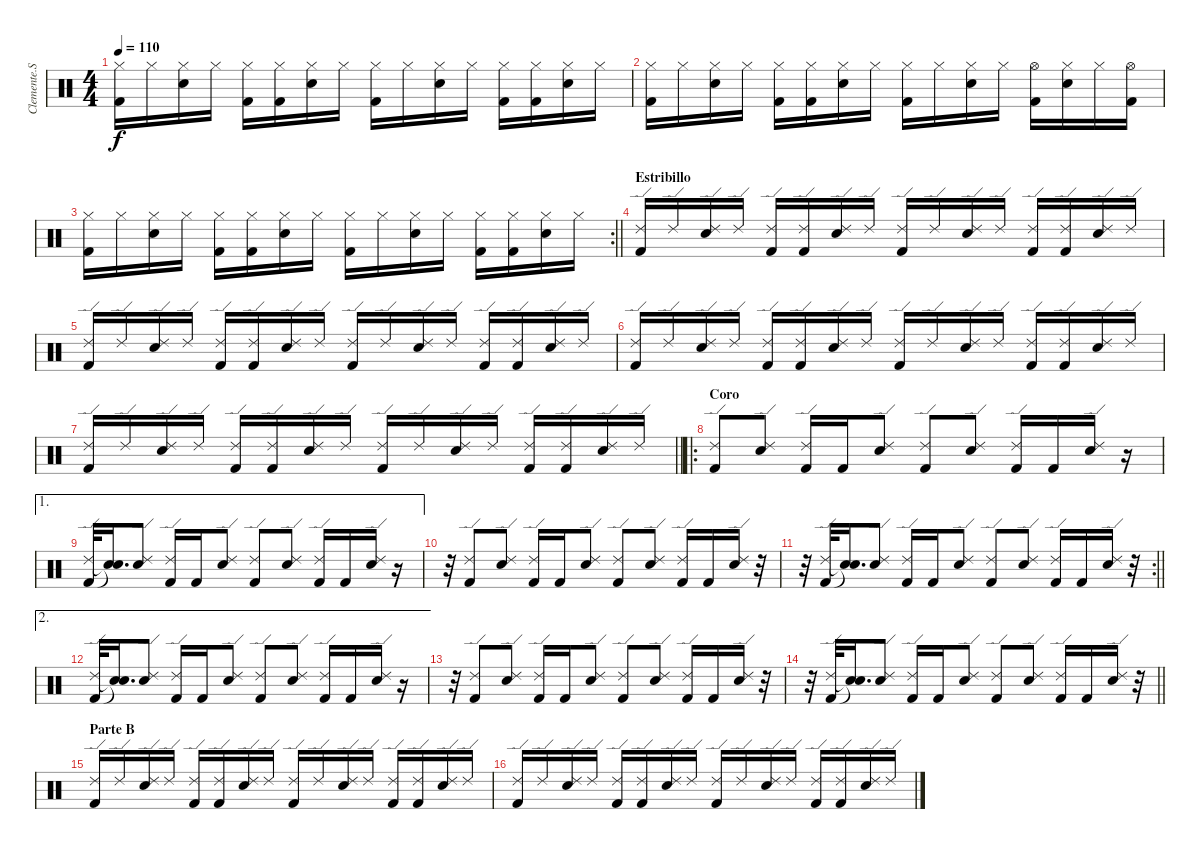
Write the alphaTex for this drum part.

\track ("Clemente.S" "Clemente.S") {instrument percussion}
\staff {score}
\articulation defaults
\ts (4 4)
\tempo 110
\clef neutral
\ks c
("Hi-Hat (closed)" "Kick (hit) 2").16{dy f} "Hi-Hat (closed)".16 ("Hi-Hat (closed)" "Snare (hit) 2").16 "Hi-Hat (closed)".16 ("Hi-Hat (closed)" "Kick (hit) 2").16 ("Hi-Hat (closed)" "Kick (hit) 2").16 ("Hi-Hat (closed)" "Snare (hit) 2").16 "Hi-Hat (closed)".16 ("Hi-Hat (closed)" "Kick (hit) 2").16 "Hi-Hat (closed)".16 ("Hi-Hat (closed)" "Snare (hit) 2").16 "Hi-Hat (closed)".16 ("Hi-Hat (closed)" "Kick (hit) 2").16 ("Hi-Hat (closed)" "Kick (hit) 2").16 ("Hi-Hat (closed)" "Snare (hit) 2").16 "Hi-Hat (closed)".16 |
("Hi-Hat (closed)" "Kick (hit) 2").16 "Hi-Hat (closed)".16 ("Hi-Hat (closed)" "Snare (hit) 2").16 "Hi-Hat (closed)".16 ("Hi-Hat (closed)" "Kick (hit) 2").16 ("Hi-Hat (closed)" "Kick (hit) 2").16 ("Hi-Hat (closed)" "Snare (hit) 2").16 "Hi-Hat (closed)".16 ("Hi-Hat (closed)" "Kick (hit) 2").16 "Hi-Hat (closed)".16 ("Hi-Hat (closed)" "Snare (hit) 2").16 "Hi-Hat (closed)".16 ("Hi-Hat (open)" "Kick (hit) 2").16 ("Hi-Hat (closed)" "Snare (hit) 2").16 "Hi-Hat (closed)".16 ("Hi-Hat (open)" "Kick (hit) 2").16 |
\rc 2
\barLineRight lightlight
("Hi-Hat (closed)" "Kick (hit) 2").16 "Hi-Hat (closed)".16 ("Hi-Hat (closed)" "Snare (hit) 2").16 "Hi-Hat (closed)".16 ("Hi-Hat (closed)" "Kick (hit) 2").16 ("Hi-Hat (closed)" "Kick (hit) 2").16 ("Hi-Hat (closed)" "Snare (hit) 2").16 "Hi-Hat (closed)".16 ("Hi-Hat (closed)" "Kick (hit) 2").16 "Hi-Hat (closed)".16 ("Hi-Hat (closed)" "Snare (hit) 2").16 "Hi-Hat (closed)".16 ("Hi-Hat (closed)" "Kick (hit) 2").16 ("Hi-Hat (closed)" "Kick (hit) 2").16 ("Hi-Hat (closed)" "Snare (hit) 2").16 "Hi-Hat (closed)".16 |
\section ("" "Estribillo")
("Ride (edge) 2" "Kick (hit) 2").16 "Ride (edge) 2".16 ("Ride (edge) 2" "Electric Snare (hit)").16 "Ride (edge) 2".16 ("Ride (edge) 2" "Kick (hit) 2").16 ("Ride (edge) 2" "Kick (hit) 2").16 ("Ride (edge) 2" "Electric Snare (hit)").16 "Ride (edge) 2".16 ("Ride (edge) 2" "Kick (hit) 2").16 "Ride (edge) 2".16 ("Ride (edge) 2" "Electric Snare (hit)").16 "Ride (edge) 2".16 ("Ride (edge) 2" "Kick (hit) 2").16 ("Ride (edge) 2" "Kick (hit) 2").16 ("Ride (edge) 2" "Electric Snare (hit)").16 "Ride (edge) 2".16 |
("Ride (edge) 2" "Kick (hit) 2").16 "Ride (edge) 2".16 ("Ride (edge) 2" "Electric Snare (hit)").16 "Ride (edge) 2".16 ("Ride (edge) 2" "Kick (hit) 2").16 ("Ride (edge) 2" "Kick (hit) 2").16 ("Ride (edge) 2" "Electric Snare (hit)").16 "Ride (edge) 2".16 ("Ride (edge) 2" "Kick (hit) 2").16 "Ride (edge) 2".16 ("Ride (edge) 2" "Electric Snare (hit)").16 "Ride (edge) 2".16 ("Ride (edge) 2" "Kick (hit) 2").16 ("Ride (edge) 2" "Kick (hit) 2").16 ("Ride (edge) 2" "Electric Snare (hit)").16 "Ride (edge) 2".16 |
("Ride (edge) 2" "Kick (hit) 2").16 "Ride (edge) 2".16 ("Ride (edge) 2" "Electric Snare (hit)").16 "Ride (edge) 2".16 ("Ride (edge) 2" "Kick (hit) 2").16 ("Ride (edge) 2" "Kick (hit) 2").16 ("Ride (edge) 2" "Electric Snare (hit)").16 "Ride (edge) 2".16 ("Ride (edge) 2" "Kick (hit) 2").16 "Ride (edge) 2".16 ("Ride (edge) 2" "Electric Snare (hit)").16 "Ride (edge) 2".16 ("Ride (edge) 2" "Kick (hit) 2").16 ("Ride (edge) 2" "Kick (hit) 2").16 ("Ride (edge) 2" "Electric Snare (hit)").16 "Ride (edge) 2".16 |
\barLineRight lightlight
("Ride (edge) 2" "Kick (hit) 2").16 "Ride (edge) 2".16 ("Ride (edge) 2" "Electric Snare (hit)").16 "Ride (edge) 2".16 ("Ride (edge) 2" "Kick (hit) 2").16 ("Ride (edge) 2" "Kick (hit) 2").16 ("Ride (edge) 2" "Electric Snare (hit)").16 "Ride (edge) 2".16 ("Ride (edge) 2" "Kick (hit) 2").16 "Ride (edge) 2".16 ("Ride (edge) 2" "Electric Snare (hit)").16 "Ride (edge) 2".16 ("Ride (edge) 2" "Kick (hit) 2").16 ("Ride (edge) 2" "Kick (hit) 2").16 ("Ride (edge) 2" "Electric Snare (hit)").16 "Ride (edge) 2".16 |
\ro
\section ("" "Coro")
("Ride (edge) 2" "Kick (hit) 2").8 ("Ride (edge) 2" "Electric Snare (hit)").8 ("Ride (edge) 2" "Kick (hit) 2").16 "Kick (hit) 2".16 ("Ride (edge) 2" "Electric Snare (hit)").8 ("Ride (edge) 2" "Kick (hit) 2").8 ("Ride (edge) 2" "Electric Snare (hit)").8 ("Ride (edge) 2" "Kick (hit) 2").16 "Kick (hit) 2".16 ("Ride (edge) 2" "Electric Snare (hit)").16 r.16 |
\ae 1
("Ride (edge) 2" "Kick (hit) 2").32 ("Snare (hit)"{t} "Snare (hit)"{t}).16{d} ("Ride (edge) 2" "Electric Snare (hit)").8 ("Ride (edge) 2" "Kick (hit) 2").16 "Kick (hit) 2".16 ("Ride (edge) 2" "Electric Snare (hit)").8 ("Ride (edge) 2" "Kick (hit) 2").8 ("Ride (edge) 2" "Electric Snare (hit)").8 ("Ride (edge) 2" "Kick (hit) 2").16 "Kick (hit) 2".16 ("Ride (edge) 2" "Electric Snare (hit)").16 r.16 |
r.32 ("Ride (edge) 2" "Kick (hit) 2").8 ("Ride (edge) 2" "Electric Snare (hit)").8 ("Ride (edge) 2" "Kick (hit) 2").16 "Kick (hit) 2".16 ("Ride (edge) 2" "Electric Snare (hit)").8 ("Ride (edge) 2" "Kick (hit) 2").8 ("Ride (edge) 2" "Electric Snare (hit)").8 ("Ride (edge) 2" "Kick (hit) 2").16 "Kick (hit) 2".16 ("Ride (edge) 2" "Electric Snare (hit)").16 r.32 |
\rc 2
\barLineRight lightlight
r.32 ("Ride (edge) 2" "Kick (hit) 2").32 ("Snare (hit)"{t} "Snare (hit)"{t}).16{d} ("Ride (edge) 2" "Electric Snare (hit)").8 ("Ride (edge) 2" "Kick (hit) 2").16 "Kick (hit) 2".16 ("Ride (edge) 2" "Electric Snare (hit)").8 ("Ride (edge) 2" "Kick (hit) 2").8 ("Ride (edge) 2" "Electric Snare (hit)").8 ("Ride (edge) 2" "Kick (hit) 2").16 "Kick (hit) 2".16 ("Ride (edge) 2" "Electric Snare (hit)").16 r.32 |
\ae 2
("Ride (edge) 2" "Kick (hit) 2").32 ("Snare (hit)"{t} "Snare (hit)"{t}).16{d} ("Ride (edge) 2" "Electric Snare (hit)").8 ("Ride (edge) 2" "Kick (hit) 2").16 "Kick (hit) 2".16 ("Ride (edge) 2" "Electric Snare (hit)").8 ("Ride (edge) 2" "Kick (hit) 2").8 ("Ride (edge) 2" "Electric Snare (hit)").8 ("Ride (edge) 2" "Kick (hit) 2").16 "Kick (hit) 2".16 ("Ride (edge) 2" "Electric Snare (hit)").16 r.16 |
r.32 ("Ride (edge) 2" "Kick (hit) 2").8 ("Ride (edge) 2" "Electric Snare (hit)").8 ("Ride (edge) 2" "Kick (hit) 2").16 "Kick (hit) 2".16 ("Ride (edge) 2" "Electric Snare (hit)").8 ("Ride (edge) 2" "Kick (hit) 2").8 ("Ride (edge) 2" "Electric Snare (hit)").8 ("Ride (edge) 2" "Kick (hit) 2").16 "Kick (hit) 2".16 ("Ride (edge) 2" "Electric Snare (hit)").16 r.32 |
\barLineRight lightlight
r.32 ("Ride (edge) 2" "Kick (hit) 2").32 ("Snare (hit)"{t} "Snare (hit)"{t}).16{d} ("Ride (edge) 2" "Electric Snare (hit)").8 ("Ride (edge) 2" "Kick (hit) 2").16 "Kick (hit) 2".16 ("Ride (edge) 2" "Electric Snare (hit)").8 ("Ride (edge) 2" "Kick (hit) 2").8 ("Ride (edge) 2" "Electric Snare (hit)").8 ("Ride (edge) 2" "Kick (hit) 2").16 "Kick (hit) 2".16 ("Ride (edge) 2" "Electric Snare (hit)").16 r.32 |
\section ("" "Parte B")
("Ride (edge) 2" "Kick (hit) 2").16 "Ride (edge) 2".16 ("Ride (edge) 2" "Electric Snare (hit)").16 "Ride (edge) 2".16 ("Ride (edge) 2" "Kick (hit) 2").16 ("Ride (edge) 2" "Kick (hit) 2").16 ("Ride (edge) 2" "Electric Snare (hit)").16 "Ride (edge) 2".16 ("Ride (edge) 2" "Kick (hit) 2").16 "Ride (edge) 2".16 ("Ride (edge) 2" "Electric Snare (hit)").16 "Ride (edge) 2".16 ("Ride (edge) 2" "Kick (hit) 2").16 ("Ride (edge) 2" "Kick (hit) 2").16 ("Ride (edge) 2" "Electric Snare (hit)").16 "Ride (edge) 2".16 |
("Ride (edge) 2" "Kick (hit) 2").16 "Ride (edge) 2".16 ("Ride (edge) 2" "Electric Snare (hit)").16 "Ride (edge) 2".16 ("Ride (edge) 2" "Kick (hit) 2").16 ("Ride (edge) 2" "Kick (hit) 2").16 ("Ride (edge) 2" "Electric Snare (hit)").16 "Ride (edge) 2".16 ("Ride (edge) 2" "Kick (hit) 2").16 "Ride (edge) 2".16 ("Ride (edge) 2" "Electric Snare (hit)").16 "Ride (edge) 2".16 ("Ride (edge) 2" "Kick (hit) 2").16 ("Ride (edge) 2" "Kick (hit) 2").16 ("Ride (edge) 2" "Electric Snare (hit)").16 "Ride (edge) 2".16
